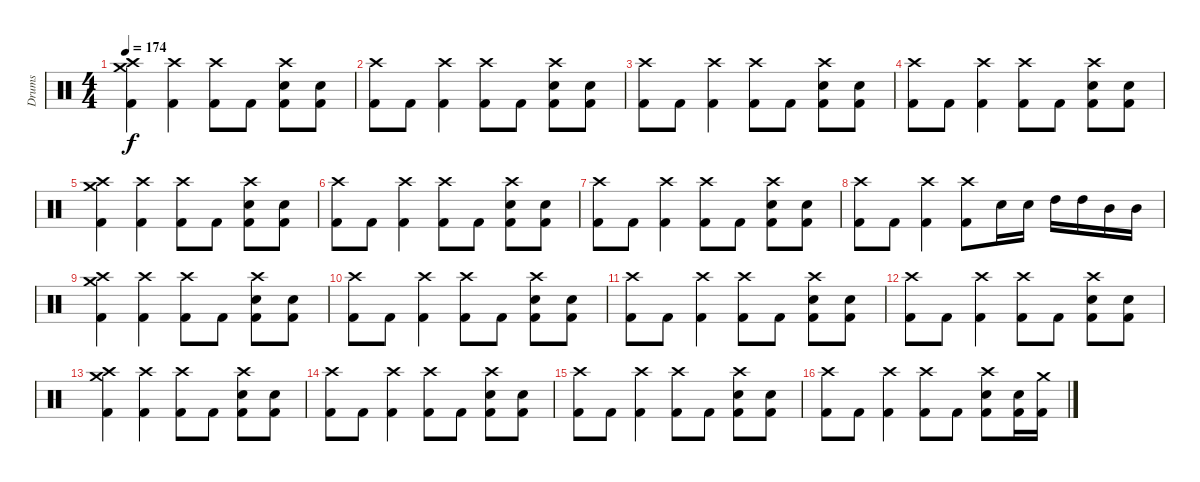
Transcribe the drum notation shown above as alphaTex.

\track ("Drums" "Drums") {instrument percussion}
\staff {score}
\articulation defaults
\ts (4 4)
\tempo 174
\clef neutral
\ks c
("Crash high (hit)" "Crash medium (hit)" "Kick (hit) 2").4{dy f} ("Crash high (hit)" "Kick (hit) 2").4 ("Crash high (hit)" "Kick (hit) 2").8 "Kick (hit) 2".8 ("Crash high (hit)" "Snare (hit) 2" "Kick (hit) 2").8 ("Snare (hit) 2" "Kick (hit) 2").8 |
("Crash high (hit)" "Kick (hit) 2").8 "Kick (hit) 2".8 ("Crash high (hit)" "Kick (hit) 2").4 ("Crash high (hit)" "Kick (hit) 2").8 "Kick (hit) 2".8 ("Crash high (hit)" "Snare (hit) 2" "Kick (hit) 2").8 ("Snare (hit) 2" "Kick (hit) 2").8 |
("Crash high (hit)" "Kick (hit) 2").8 "Kick (hit) 2".8 ("Crash high (hit)" "Kick (hit) 2").4 ("Crash high (hit)" "Kick (hit) 2").8 "Kick (hit) 2".8 ("Crash high (hit)" "Snare (hit) 2" "Kick (hit) 2").8 ("Snare (hit) 2" "Kick (hit) 2").8 |
("Crash high (hit)" "Kick (hit) 2").8 "Kick (hit) 2".8 ("Crash high (hit)" "Kick (hit) 2").4 ("Crash high (hit)" "Kick (hit) 2").8 "Kick (hit) 2".8 ("Crash high (hit)" "Snare (hit) 2" "Kick (hit) 2").8 ("Snare (hit) 2" "Kick (hit) 2").8 |
("Crash high (hit)" "Crash medium (hit)" "Kick (hit) 2").4 ("Crash high (hit)" "Kick (hit) 2").4 ("Crash high (hit)" "Kick (hit) 2").8 "Kick (hit) 2".8 ("Crash high (hit)" "Snare (hit) 2" "Kick (hit) 2").8 ("Snare (hit) 2" "Kick (hit) 2").8 |
("Crash high (hit)" "Kick (hit) 2").8 "Kick (hit) 2".8 ("Crash high (hit)" "Kick (hit) 2").4 ("Crash high (hit)" "Kick (hit) 2").8 "Kick (hit) 2".8 ("Crash high (hit)" "Snare (hit) 2" "Kick (hit) 2").8 ("Snare (hit) 2" "Kick (hit) 2").8 |
("Crash high (hit)" "Kick (hit) 2").8 "Kick (hit) 2".8 ("Crash high (hit)" "Kick (hit) 2").4 ("Crash high (hit)" "Kick (hit) 2").8 "Kick (hit) 2".8 ("Crash high (hit)" "Snare (hit) 2" "Kick (hit) 2").8 ("Snare (hit) 2" "Kick (hit) 2").8 |
("Crash high (hit)" "Kick (hit) 2").8 "Kick (hit) 2".8 ("Crash high (hit)" "Kick (hit) 2").4 ("Crash high (hit)" "Kick (hit) 2").8 "Snare (hit) 2".16 "Snare (hit) 2".16 "High Tom (hit)".16 "High Tom (hit)".16 "Mid Tom (hit)".16 "Mid Tom (hit)".16 |
("Crash high (hit)" "Crash medium (hit)" "Kick (hit) 2").4 ("Crash high (hit)" "Kick (hit) 2").4 ("Crash high (hit)" "Kick (hit) 2").8 "Kick (hit) 2".8 ("Crash high (hit)" "Snare (hit) 2" "Kick (hit) 2").8 ("Snare (hit) 2" "Kick (hit) 2").8 |
("Crash high (hit)" "Kick (hit) 2").8 "Kick (hit) 2".8 ("Crash high (hit)" "Kick (hit) 2").4 ("Crash high (hit)" "Kick (hit) 2").8 "Kick (hit) 2".8 ("Crash high (hit)" "Snare (hit) 2" "Kick (hit) 2").8 ("Snare (hit) 2" "Kick (hit) 2").8 |
("Crash high (hit)" "Kick (hit) 2").8 "Kick (hit) 2".8 ("Crash high (hit)" "Kick (hit) 2").4 ("Crash high (hit)" "Kick (hit) 2").8 "Kick (hit) 2".8 ("Crash high (hit)" "Snare (hit) 2" "Kick (hit) 2").8 ("Snare (hit) 2" "Kick (hit) 2").8 |
("Crash high (hit)" "Kick (hit) 2").8 "Kick (hit) 2".8 ("Crash high (hit)" "Kick (hit) 2").4 ("Crash high (hit)" "Kick (hit) 2").8 "Kick (hit) 2".8 ("Crash high (hit)" "Snare (hit) 2" "Kick (hit) 2").8 ("Snare (hit) 2" "Kick (hit) 2").8 |
("Crash high (hit)" "Crash medium (hit)" "Kick (hit) 2").4 ("Crash high (hit)" "Kick (hit) 2").4 ("Crash high (hit)" "Kick (hit) 2").8 "Kick (hit) 2".8 ("Crash high (hit)" "Snare (hit) 2" "Kick (hit) 2").8 ("Snare (hit) 2" "Kick (hit) 2").8 |
("Crash high (hit)" "Kick (hit) 2").8 "Kick (hit) 2".8 ("Crash high (hit)" "Kick (hit) 2").4 ("Crash high (hit)" "Kick (hit) 2").8 "Kick (hit) 2".8 ("Crash high (hit)" "Snare (hit) 2" "Kick (hit) 2").8 ("Snare (hit) 2" "Kick (hit) 2").8 |
("Crash high (hit)" "Kick (hit) 2").8 "Kick (hit) 2".8 ("Crash high (hit)" "Kick (hit) 2").4 ("Crash high (hit)" "Kick (hit) 2").8 "Kick (hit) 2".8 ("Crash high (hit)" "Snare (hit) 2" "Kick (hit) 2").8 ("Snare (hit) 2" "Kick (hit) 2").8 |
("Crash high (hit)" "Kick (hit) 2").8 "Kick (hit) 2".8 ("Crash high (hit)" "Kick (hit) 2").4 ("Crash high (hit)" "Kick (hit) 2").8 "Kick (hit) 2".8 ("Crash high (hit)" "Snare (hit) 2" "Kick (hit) 2").8 ("Snare (hit) 2" "Kick (hit) 2").16 ("Crash medium (hit)" "Kick (hit) 2").16
